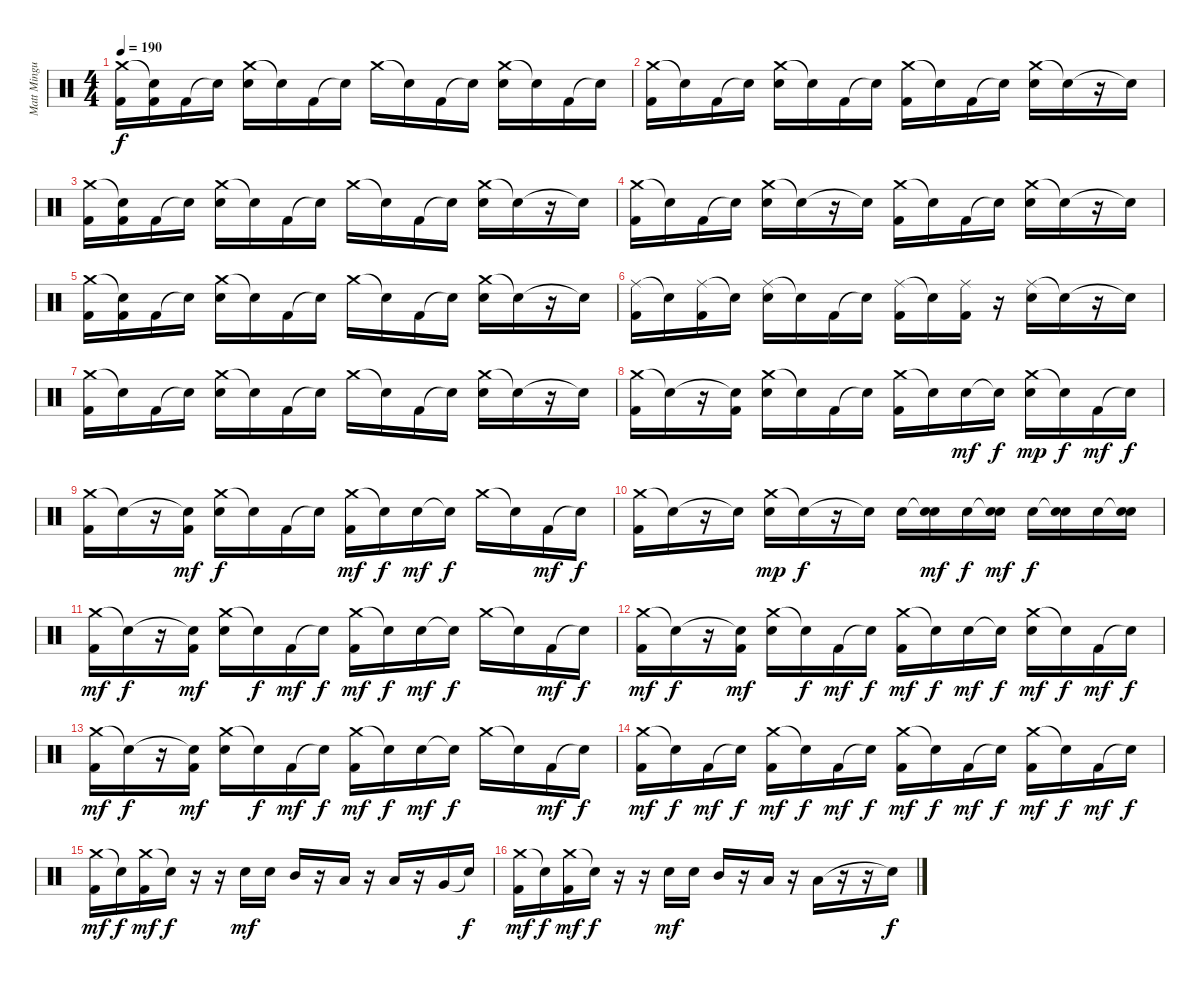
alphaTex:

\track ("Matt Mingus" "Matt Mingu") {instrument percussion}
\staff {score}
\articulation defaults
\ts (4 4)
\tempo 190
\clef neutral
\ks c
("Crash medium (hit)" "Kick (hit) 2").16{dy f} ("Snare (hit)"{t} "Kick (hit) 2").16 "Kick (hit) 2".16 "Snare (hit)"{t}.16 ("Crash medium (hit)" "Electric Snare (hit)").16 "Snare (hit)"{t}.16 "Kick (hit) 2".16 "Snare (hit)"{t}.16 "Crash medium (hit)".16 "Snare (hit)"{t}.16 "Kick (hit) 2".16 "Snare (hit)"{t}.16 ("Crash medium (hit)" "Electric Snare (hit)").16 "Snare (hit)"{t}.16 "Kick (hit) 2".16 "Snare (hit)"{t}.16 |
("Crash medium (hit)" "Kick (hit) 2").16 "Snare (hit)"{t}.16 "Kick (hit) 2".16 "Snare (hit)"{t}.16 ("Crash medium (hit)" "Electric Snare (hit)").16 "Snare (hit)"{t}.16 "Kick (hit) 2".16 "Snare (hit)"{t}.16 ("Crash medium (hit)" "Kick (hit) 2").16 "Snare (hit)"{t}.16 "Kick (hit) 2".16 "Snare (hit)"{t}.16 ("Crash medium (hit)" "Electric Snare (hit)").16 "Snare (hit)"{t}.16 r.16 "Snare (hit)"{t}.16 |
("Crash medium (hit)" "Kick (hit) 2").16 ("Snare (hit)"{t} "Kick (hit) 2").16 "Kick (hit) 2".16 "Snare (hit)"{t}.16 ("Crash medium (hit)" "Electric Snare (hit)").16 "Snare (hit)"{t}.16 "Kick (hit) 2".16 "Snare (hit)"{t}.16 "Crash medium (hit)".16 "Snare (hit)"{t}.16 "Kick (hit) 2".16 "Snare (hit)"{t}.16 ("Crash medium (hit)" "Electric Snare (hit)").16 "Snare (hit)"{t}.16 r.16 "Snare (hit)"{t}.16 |
("Crash medium (hit)" "Kick (hit) 2").16 "Snare (hit)"{t}.16 "Kick (hit) 2".16 "Snare (hit)"{t}.16 ("Crash medium (hit)" "Electric Snare (hit)").16 "Snare (hit)"{t}.16 r.16 "Snare (hit)"{t}.16 ("Crash medium (hit)" "Kick (hit) 2").16 "Snare (hit)"{t}.16 "Kick (hit) 2".16 "Snare (hit)"{t}.16 ("Crash medium (hit)" "Electric Snare (hit)").16 "Snare (hit)"{t}.16 r.16 "Snare (hit)"{t}.16 |
("Crash medium (hit)" "Kick (hit) 2").16 ("Snare (hit)"{t} "Kick (hit) 2").16 "Kick (hit) 2".16 "Snare (hit)"{t}.16 ("Crash medium (hit)" "Electric Snare (hit)").16 "Snare (hit)"{t}.16 "Kick (hit) 2".16 "Snare (hit)"{t}.16 "Crash medium (hit)".16 "Snare (hit)"{t}.16 "Kick (hit) 2".16 "Snare (hit)"{t}.16 ("Crash medium (hit)" "Electric Snare (hit)").16 "Snare (hit)"{t}.16 r.16 "Snare (hit)"{t}.16 |
("Ride (middle)" "Kick (hit) 2").16 "Snare (hit)"{t}.16 ("Ride (middle)" "Kick (hit) 2").16 "Snare (hit)"{t}.16 ("Ride (middle)" "Electric Snare (hit)").16 "Snare (hit)"{t}.16 "Kick (hit) 2".16 "Snare (hit)"{t}.16 ("Ride (middle)" "Kick (hit) 2").16 "Snare (hit)"{t}.16 ("Ride (middle)" "Kick (hit) 2").16 r.16 ("Ride (middle)" "Electric Snare (hit)").16 "Snare (hit)"{t}.16 r.16 "Snare (hit)"{t}.16 |
("Crash medium (hit)" "Kick (hit) 2").16 "Snare (hit)"{t}.16 "Kick (hit) 2".16 "Snare (hit)"{t}.16 ("Crash medium (hit)" "Electric Snare (hit)").16 "Snare (hit)"{t}.16 "Kick (hit) 2".16 "Snare (hit)"{t}.16 "Crash medium (hit)".16 "Snare (hit)"{t}.16 "Kick (hit) 2".16 "Snare (hit)"{t}.16 ("Crash medium (hit)" "Electric Snare (hit)").16 "Snare (hit)"{t}.16 r.16 "Snare (hit)"{t}.16 |
("Crash medium (hit)" "Kick (hit) 2").16 "Snare (hit)"{t}.16 r.16 ("Snare (hit)"{t} "Kick (hit) 2").16 ("Crash medium (hit)" "Electric Snare (hit)").16 "Snare (hit)"{t}.16 "Kick (hit) 2".16 "Snare (hit)"{t}.16 ("Crash medium (hit)" "Kick (hit) 2").16 "Snare (hit)"{t}.16 "Electric Snare (hit)".16{dy mf} "Snare (hit)"{t}.16{dy f} ("Crash medium (hit)" "Electric Snare (hit)").16{dy mp} "Snare (hit)"{t}.16{dy f} "Kick (hit) 2".16{dy mf} "Snare (hit)"{t}.16{dy f} |
("Crash medium (hit)" "Kick (hit) 2").16 "Snare (hit)"{t}.16 r.16 ("Snare (hit)"{t} "Kick (hit) 2").16{dy mf} ("Crash medium (hit)" "Electric Snare (hit)").16{dy f} "Snare (hit)"{t}.16 "Kick (hit) 2".16 "Snare (hit)"{t}.16 ("Crash medium (hit)" "Kick (hit) 2").16{dy mf} "Snare (hit)"{t}.16{dy f} "Electric Snare (hit)".16{dy mf} "Snare (hit)"{t}.16{dy f} "Crash medium (hit)".16 "Snare (hit)"{t}.16 "Kick (hit) 2".16{dy mf} "Snare (hit)"{t}.16{dy f} |
("Crash medium (hit)" "Kick (hit) 2").16 "Snare (hit)"{t}.16 r.16 "Snare (hit)"{t}.16 ("Crash medium (hit)" "Electric Snare (hit)").16{dy mp} "Snare (hit)"{t}.16{dy f} r.16 "Snare (hit)"{t}.16 "Electric Snare (hit)".16 ("Snare (hit)"{t} "Electric Snare (hit)").16{dy mf} "Electric Snare (hit)".16{dy f} ("Snare (hit)"{t} "Electric Snare (hit)").16{dy mf} "Electric Snare (hit)".16{dy f} ("Snare (hit)"{t} "Electric Snare (hit)").16 "Electric Snare (hit)".16 ("Snare (hit)"{t} "Electric Snare (hit)").16 |
("Crash medium (hit)" "Kick (hit) 2").16{dy mf} "Snare (hit)"{t}.16{dy f} r.16 ("Snare (hit)"{t} "Kick (hit) 2").16{dy mf} ("Crash medium (hit)" "Electric Snare (hit)").16 "Snare (hit)"{t}.16{dy f} "Kick (hit) 2".16{dy mf} "Snare (hit)"{t}.16{dy f} ("Crash medium (hit)" "Kick (hit) 2").16{dy mf} "Snare (hit)"{t}.16{dy f} "Electric Snare (hit)".16{dy mf} "Snare (hit)"{t}.16{dy f} "Crash medium (hit)".16 "Snare (hit)"{t}.16 "Kick (hit) 2".16{dy mf} "Snare (hit)"{t}.16{dy f} |
("Crash medium (hit)" "Kick (hit) 2").16{dy mf} "Snare (hit)"{t}.16{dy f} r.16 ("Snare (hit)"{t} "Kick (hit) 2").16{dy mf} ("Crash medium (hit)" "Electric Snare (hit)").16 "Snare (hit)"{t}.16{dy f} "Kick (hit) 2".16{dy mf} "Snare (hit)"{t}.16{dy f} ("Crash medium (hit)" "Kick (hit) 2").16{dy mf} "Snare (hit)"{t}.16{dy f} "Electric Snare (hit)".16{dy mf} "Snare (hit)"{t}.16{dy f} ("Crash medium (hit)" "Electric Snare (hit)").16{dy mf} "Snare (hit)"{t}.16{dy f} "Kick (hit) 2".16{dy mf} "Snare (hit)"{t}.16{dy f} |
("Crash medium (hit)" "Kick (hit) 2").16{dy mf} "Snare (hit)"{t}.16{dy f} r.16 ("Snare (hit)"{t} "Kick (hit) 2").16{dy mf} ("Crash medium (hit)" "Electric Snare (hit)").16 "Snare (hit)"{t}.16{dy f} "Kick (hit) 2".16{dy mf} "Snare (hit)"{t}.16{dy f} ("Crash medium (hit)" "Kick (hit) 2").16{dy mf} "Snare (hit)"{t}.16{dy f} "Electric Snare (hit)".16{dy mf} "Snare (hit)"{t}.16{dy f} "Crash medium (hit)".16 "Snare (hit)"{t}.16 "Kick (hit) 2".16{dy mf} "Snare (hit)"{t}.16{dy f} |
("Crash medium (hit)" "Kick (hit) 2").16{dy mf} "Snare (hit)"{t}.16{dy f} "Kick (hit) 2".16{dy mf} "Snare (hit)"{t}.16{dy f} ("Crash medium (hit)" "Kick (hit) 2").16{dy mf} "Snare (hit)"{t}.16{dy f} "Kick (hit) 2".16{dy mf} "Snare (hit)"{t}.16{dy f} ("Crash medium (hit)" "Kick (hit) 2").16{dy mf} "Snare (hit)"{t}.16{dy f} "Kick (hit) 2".16{dy mf} "Snare (hit)"{t}.16{dy f} ("Crash medium (hit)" "Kick (hit) 2").16{dy mf} "Snare (hit)"{t}.16{dy f} "Kick (hit) 2".16{dy mf} "Snare (hit)"{t}.16{dy f} |
("Crash medium (hit)" "Kick (hit) 2").16{dy mf} "Snare (hit)"{t}.16{dy f} ("Crash medium (hit)" "Kick (hit) 2").16{dy mf} "Snare (hit)"{t}.16{dy f} r.16 r.16 "Electric Snare (hit)".16{dy mf} "Electric Snare (hit)".16 "Mid Tom (hit)".16 r.16 "Low Tom (hit)".16 r.16 "Low Tom (hit)".16 r.16 "Very Low Tom (hit)".16 "Snare (hit)"{t}.16{dy f} |
("Crash medium (hit)" "Kick (hit) 2").16{dy mf} "Snare (hit)"{t}.16{dy f} ("Crash medium (hit)" "Kick (hit) 2").16{dy mf} "Snare (hit)"{t}.16{dy f} r.16 r.16 "Electric Snare (hit)".16{dy mf} "Electric Snare (hit)".16 "Mid Tom (hit)".16 r.16 "Low Tom (hit)".16 r.16 "Low Tom (hit)".16 r.16 r.16 "Snare (hit)"{t}.16{dy f}
